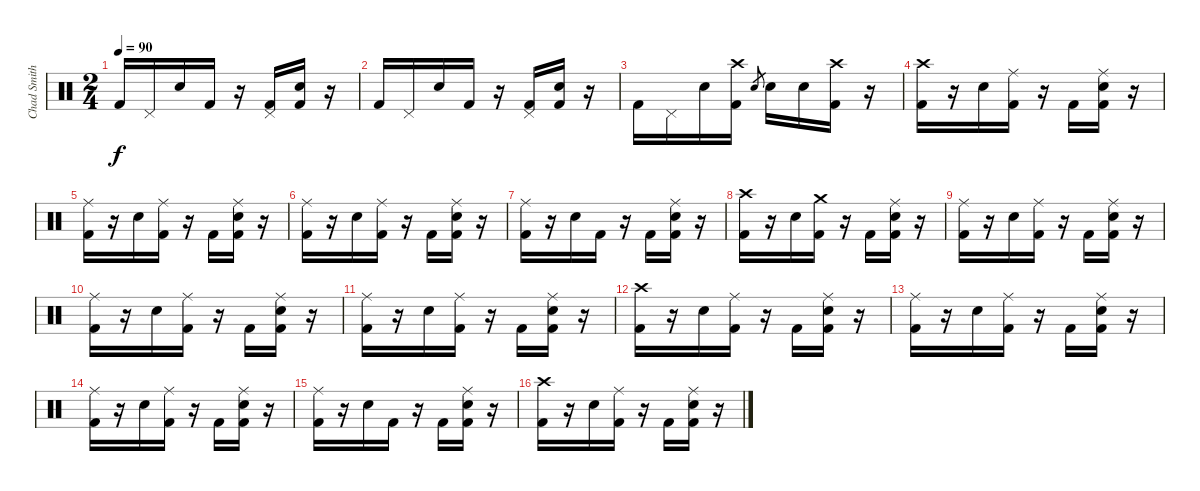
\track ("Chad Smith" "Chad Smith") {instrument percussion}
\staff {score}
\articulation defaults
\ts (2 4)
\tempo 90
\clef neutral
\ks c "Kick (hit) 2".16{dy f} "Pedal Hi-Hat (hit)".16 "Electric Snare (hit)".16 "Kick (hit) 2".16
r.16 ("Pedal Hi-Hat (hit)" "Kick (hit) 2").16 ("Electric Snare (hit)" "Kick (hit) 2").16 r.16 |
"Kick (hit) 2".16 "Pedal Hi-Hat (hit)".16 "Electric Snare (hit)".16 "Kick (hit) 2".16 r.16 ("Pedal Hi-Hat (hit)" "Kick (hit) 2").16 ("Electric Snare (hit)" "Kick (hit) 2").16 r.16 |
"Kick (hit) 2".16 "Pedal Hi-Hat (hit)".16 "Electric Snare (hit)".16 ("Crash high (hit)" "Kick (hit) 2").16 "Electric Snare (hit)".8{gr} "Electric Snare (hit)".16 "Electric Snare (hit)".16 ("Crash high (hit)" "Kick (hit) 2").16 r.16 |
("Crash high (hit)" "Kick (hit) 2").16 r.16 "Electric Snare (hit)".16 ("Ride (middle)" "Kick (hit) 2").16 r.16 "Kick (hit) 2".16 ("Ride (middle)" "Electric Snare (hit)" "Kick (hit) 2").16 r.16 |
("Ride (middle)" "Kick (hit) 2").16 r.16 "Electric Snare (hit)".16 ("Ride (middle)" "Kick (hit) 2").16 r.16 "Kick (hit) 2".16 ("Ride (middle)" "Electric Snare (hit)" "Kick (hit) 2").16 r.16 |
("Ride (middle)" "Kick (hit) 2").16 r.16 "Electric Snare (hit)".16 ("Ride (middle)" "Kick (hit) 2").16 r.16 "Kick (hit) 2".16 ("Ride (middle)" "Electric Snare (hit)" "Kick (hit) 2").16 r.16 |
("Ride (middle)" "Kick (hit) 2").16 r.16 "Electric Snare (hit)".16 "Kick (hit) 2".16 r.16 "Kick (hit) 2".16 ("Ride (middle)" "Electric Snare (hit)" "Kick (hit) 2").16 r.16 |
("Crash high (hit)" "Kick (hit) 2").16 r.16 "Electric Snare (hit)".16 ("Crash medium (hit)" "Kick (hit) 2").16 r.16 "Kick (hit) 2".16 ("Ride (middle)" "Electric Snare (hit)" "Kick (hit) 2").16 r.16 |
("Ride (middle)" "Kick (hit) 2").16 r.16 "Electric Snare (hit)".16 ("Ride (middle)" "Kick (hit) 2").16 r.16 "Kick (hit) 2".16 ("Ride (middle)" "Electric Snare (hit)" "Kick (hit) 2").16 r.16 |
("Ride (middle)" "Kick (hit) 2").16 r.16 "Electric Snare (hit)".16 ("Ride (middle)" "Kick (hit) 2").16 r.16 "Kick (hit) 2".16 ("Ride (middle)" "Electric Snare (hit)" "Kick (hit) 2").16 r.16 |
("Ride (middle)" "Kick (hit) 2").16 r.16 "Electric Snare (hit)".16 ("Ride (middle)" "Kick (hit) 2").16 r.16 "Kick (hit) 2".16 ("Ride (middle)" "Electric Snare (hit)" "Kick (hit) 2").16 r.16 |
("Crash high (hit)" "Kick (hit) 2").16 r.16 "Electric Snare (hit)".16 ("Ride (middle)" "Kick (hit) 2").16 r.16 "Kick (hit) 2".16 ("Ride (middle)" "Electric Snare (hit)" "Kick (hit) 2").16 r.16 |
("Ride (middle)" "Kick (hit) 2").16 r.16 "Electric Snare (hit)".16 ("Ride (middle)" "Kick (hit) 2").16 r.16 "Kick (hit) 2".16 ("Ride (middle)" "Electric Snare (hit)" "Kick (hit) 2").16 r.16 |
("Ride (middle)" "Kick (hit) 2").16 r.16 "Electric Snare (hit)".16 ("Ride (middle)" "Kick (hit) 2").16 r.16 "Kick (hit) 2".16 ("Ride (middle)" "Electric Snare (hit)" "Kick (hit) 2").16 r.16 |
("Ride (middle)" "Kick (hit) 2").16 r.16 "Electric Snare (hit)".16 "Kick (hit) 2".16 r.16 "Kick (hit) 2".16 ("Ride (middle)" "Electric Snare (hit)" "Kick (hit) 2").16 r.16 |
("Crash high (hit)" "Kick (hit) 2").16 r.16 "Electric Snare (hit)".16 ("Ride (middle)" "Kick (hit) 2").16 r.16 "Kick (hit) 2".16 ("Ride (middle)" "Electric Snare (hit)" "Kick (hit) 2").16 r.16
